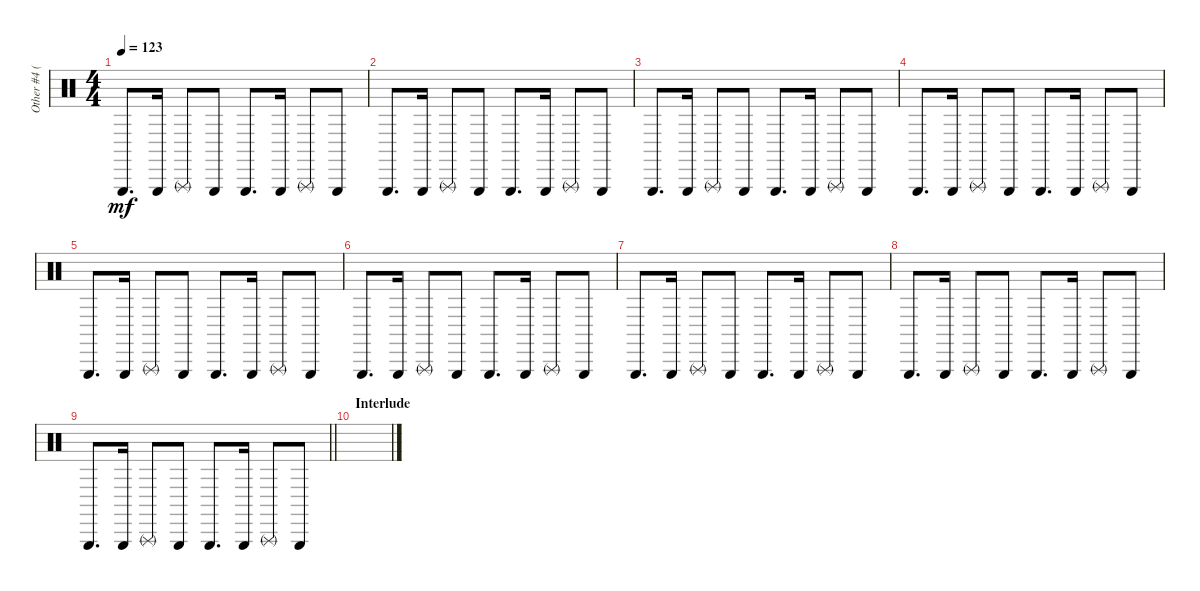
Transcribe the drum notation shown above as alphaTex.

\track ("Other #4 (Triangle)" "Other #4 (") {instrument percussion}
\staff {score}
\articulation defaults
\ts (4 4)
\tempo 123
\clef neutral
\ks c "Triangle (hit)".8{d dy mf} "Triangle (hit)".16 "Triangle (rnute)".8 "Triangle (hit)".8 "Triangle (hit)".8{d} "Triangle (hit)".16 "Triangle (rnute)".8 "Triangle (hit)".8
|
"Triangle (hit)".8{d} "Triangle (hit)".16 "Triangle (rnute)".8 "Triangle (hit)".8 "Triangle (hit)".8{d} "Triangle (hit)".16 "Triangle (rnute)".8 "Triangle (hit)".8 |
"Triangle (hit)".8{d} "Triangle (hit)".16 "Triangle (rnute)".8 "Triangle (hit)".8 "Triangle (hit)".8{d} "Triangle (hit)".16 "Triangle (rnute)".8 "Triangle (hit)".8 |
"Triangle (hit)".8{d} "Triangle (hit)".16 "Triangle (rnute)".8 "Triangle (hit)".8 "Triangle (hit)".8{d} "Triangle (hit)".16 "Triangle (rnute)".8 "Triangle (hit)".8 |
"Triangle (hit)".8{d} "Triangle (hit)".16 "Triangle (rnute)".8 "Triangle (hit)".8 "Triangle (hit)".8{d} "Triangle (hit)".16 "Triangle (rnute)".8 "Triangle (hit)".8 |
"Triangle (hit)".8{d} "Triangle (hit)".16 "Triangle (rnute)".8 "Triangle (hit)".8 "Triangle (hit)".8{d} "Triangle (hit)".16 "Triangle (rnute)".8 "Triangle (hit)".8 |
"Triangle (hit)".8{d} "Triangle (hit)".16 "Triangle (rnute)".8 "Triangle (hit)".8 "Triangle (hit)".8{d} "Triangle (hit)".16 "Triangle (rnute)".8 "Triangle (hit)".8 |
"Triangle (hit)".8{d} "Triangle (hit)".16 "Triangle (rnute)".8 "Triangle (hit)".8 "Triangle (hit)".8{d} "Triangle (hit)".16 "Triangle (rnute)".8 "Triangle (hit)".8 |
\barLineRight lightlight "Triangle (hit)".8{d} "Triangle (hit)".16 "Triangle (rnute)".8 "Triangle (hit)".8 "Triangle (hit)".8{d} "Triangle (hit)".16 "Triangle (rnute)".8 "Triangle (hit)".8
|
\section ("" "Interlude")
